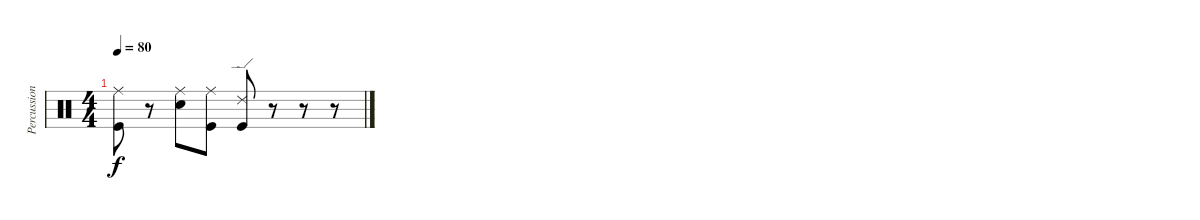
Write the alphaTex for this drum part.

\track ("Percussion" "Percussion") {instrument percussion}
\staff {score}
\articulation defaults
\ts (4 4)
\tempo 80
\clef neutral
\ks c
("Ride (middle)" "Kick (hit)").8{dy f} r.8 ("Ride (middle)" "Snare (hit) 2").8 ("Ride (middle)" "Kick (hit)").8 ("Ride (edge) 2" "Kick (hit)").8 r.8 r.8 r.8
